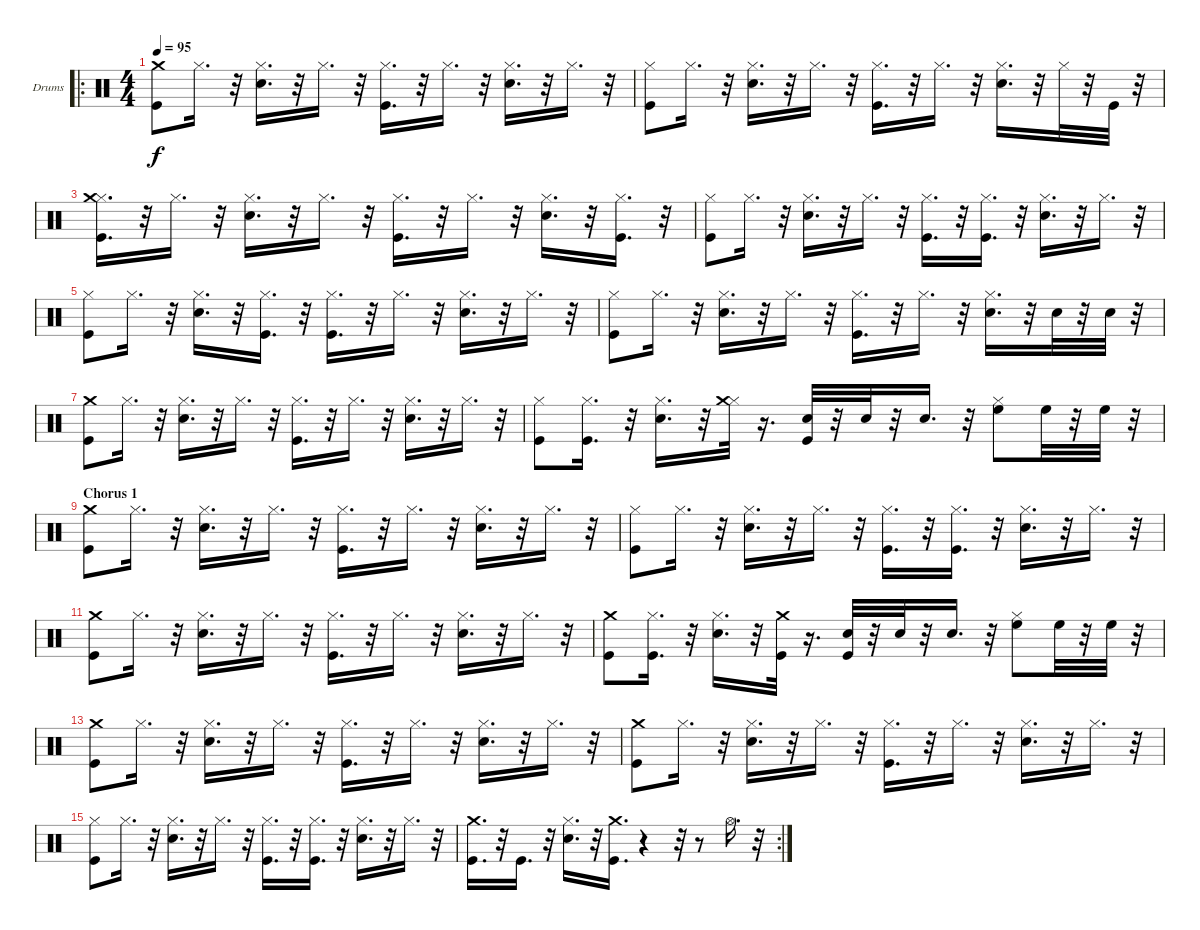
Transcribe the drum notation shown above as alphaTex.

\bracketExtendMode nobrackets
\firstSystemTrackNameOrientation horizontal
\otherSystemsTrackNameOrientation horizontal
\defaultBarNumberDisplay FirstOfSystem
\track ("Drumkit" "Drums") {instrument percussion}
\staff {score}
\articulation defaults
\ro
\ts (4 4)
\tempo 95
\clef neutral
\scale
0.498141
\ks c
("Crash medium (hit)" "Kick (hit)").8{dy f} "Hi-Hat (closed)".16{d} r.32 ("Hi-Hat (closed)" "Snare (hit) 2").16{d} r.32 "Hi-Hat (closed)".16{d} r.32 ("Hi-Hat (closed)" "Kick (hit)").16{d} r.32 "Hi-Hat (closed)".16{d} r.32 ("Hi-Hat (closed)" "Snare (hit) 2").16{d} r.32 "Hi-Hat (closed)".16{d} r.32 |
\scale
0.501859 ("Hi-Hat (closed)" "Kick (hit)").8 "Hi-Hat (closed)".16{d} r.32 ("Hi-Hat (closed)" "Snare (hit) 2").16{d} r.32 "Hi-Hat (closed)".16{d} r.32 ("Hi-Hat (closed)" "Kick (hit)").16{d} r.32 "Hi-Hat (closed)".16{d} r.32 ("Hi-Hat (closed)" "Snare (hit) 2").16{d} r.32 "Hi-Hat (closed)".32 r.32 "Kick (hit)".32 r.32 |
\scale
0.507692 ("Hi-Hat (closed)" "Crash medium (hit)" "Kick (hit)").16{d} r.32 "Hi-Hat (closed)".16{d} r.32 ("Hi-Hat (closed)" "Snare (hit) 2").16{d} r.32 "Hi-Hat (closed)".16{d} r.32 ("Hi-Hat (closed)" "Kick (hit)").16{d} r.32 "Hi-Hat (closed)".16{d} r.32 ("Hi-Hat (closed)" "Snare (hit) 2").16{d} r.32 ("Hi-Hat (closed)" "Kick (hit)").16{d} r.32 |
\scale
0.492308 ("Hi-Hat (closed)" "Kick (hit)").8 "Hi-Hat (closed)".16{d} r.32 ("Hi-Hat (closed)" "Snare (hit) 2").16{d} r.32 "Hi-Hat (closed)".16{d} r.32 ("Hi-Hat (closed)" "Kick (hit)").16{d} r.32 ("Hi-Hat (closed)" "Kick (hit)").16{d} r.32 ("Hi-Hat (closed)" "Snare (hit) 2").16{d} r.32 "Hi-Hat (closed)".16{d} r.32 |
\scale
0.486692 ("Hi-Hat (closed)" "Kick (hit)").8 "Hi-Hat (closed)".16{d} r.32 ("Hi-Hat (closed)" "Snare (hit) 2").16{d} r.32 ("Hi-Hat (closed)" "Kick (hit)").16{d} r.32 ("Hi-Hat (closed)" "Kick (hit)").16{d} r.32 "Hi-Hat (closed)".16{d} r.32 ("Hi-Hat (closed)" "Snare (hit) 2").16{d} r.32 "Hi-Hat (closed)".16{d} r.32 |
\scale
0.513308 ("Hi-Hat (closed)" "Kick (hit)").8 "Hi-Hat (closed)".16{d} r.32 ("Hi-Hat (closed)" "Snare (hit) 2").16{d} r.32 "Hi-Hat (closed)".16{d} r.32 ("Hi-Hat (closed)" "Kick (hit)").16{d} r.32 "Hi-Hat (closed)".16{d} r.32 ("Hi-Hat (closed)" "Snare (hit) 2").16{d} r.32 "Snare (hit) 2".32 r.32 "Snare (hit) 2".32 r.32 |
\scale
0.387879 ("Crash medium (hit)" "Kick (hit)").8 "Hi-Hat (closed)".16{d} r.32 ("Hi-Hat (closed)" "Snare (hit) 2").16{d} r.32 "Hi-Hat (closed)".16{d} r.32 ("Hi-Hat (closed)" "Kick (hit)").16{d} r.32 "Hi-Hat (closed)".16{d} r.32 ("Hi-Hat (closed)" "Snare (hit) 2").16{d} r.32 "Hi-Hat (closed)".16{d} r.32 |
\scale
0.612121 ("Hi-Hat (closed)" "Kick (hit)").8 ("Hi-Hat (closed)" "Kick (hit)").16{d} r.32 ("Hi-Hat (closed)" "Snare (hit) 2").16{d} r.32 ("Hi-Hat (closed)" "Crash medium (hit)").32 r.16{d} ("Snare (hit) 2" "Kick (hit)").32 r.32 "Snare (hit) 2".32 r.32 "Snare (hit) 2".16{d} r.32 ("Hi-Hat (closed)" "High Floor Tom (hit)").8 "High Floor Tom (hit)".32 r.32 "High Floor Tom (hit)".32 r.32 |
\section ("" "Chorus 1")
\scale
0.5 ("Kick (hit)" "Crash medium (hit)").8 "Hi-Hat (closed)".16{d} r.32 ("Hi-Hat (closed)" "Snare (hit) 2").16{d} r.32 "Hi-Hat (closed)".16{d} r.32 ("Hi-Hat (closed)" "Kick (hit)").16{d} r.32 "Hi-Hat (closed)".16{d} r.32 ("Hi-Hat (closed)" "Snare (hit) 2").16{d} r.32 "Hi-Hat (closed)".16{d} r.32 |
\scale
0.5 ("Hi-Hat (closed)" "Kick (hit)").8 "Hi-Hat (closed)".16{d} r.32 ("Hi-Hat (closed)" "Snare (hit) 2").16{d} r.32 "Hi-Hat (closed)".16{d} r.32 ("Hi-Hat (closed)" "Kick (hit)").16{d} r.32 ("Hi-Hat (closed)" "Kick (hit)").16{d} r.32 ("Hi-Hat (closed)" "Snare (hit) 2").16{d} r.32 "Hi-Hat (closed)".16{d} r.32 |
\scale
0.481203 ("Kick (hit)" "Crash medium (hit)").8 "Hi-Hat (closed)".16{d} r.32 ("Hi-Hat (closed)" "Snare (hit) 2").16{d} r.32 "Hi-Hat (closed)".16{d} r.32 ("Hi-Hat (closed)" "Kick (hit)").16{d} r.32 "Hi-Hat (closed)".16{d} r.32 ("Hi-Hat (closed)" "Snare (hit) 2").16{d} r.32 "Hi-Hat (closed)".16{d} r.32 |
\scale
0.518797 ("Kick (hit)" "Crash medium (hit)").8 ("Hi-Hat (closed)" "Kick (hit)").16{d} r.32 ("Hi-Hat (closed)" "Snare (hit) 2").16{d} r.32 ("Kick (hit)" "Crash medium (hit)").32 r.16{d} ("Snare (hit) 2" "Kick (hit)").32 r.32 "Snare (hit) 2".32 r.32 "Snare (hit) 2".16{d} r.32 ("Hi-Hat (closed)" "High Floor Tom (hit)").8 "High Floor Tom (hit)".32 r.32 "High Floor Tom (hit)".32 r.32 |
\scale
0.5 ("Crash medium (hit)" "Kick (hit)").8 "Hi-Hat (closed)".16{d} r.32 ("Hi-Hat (closed)" "Snare (hit) 2").16{d} r.32 "Hi-Hat (closed)".16{d} r.32 ("Hi-Hat (closed)" "Kick (hit)").16{d} r.32 "Hi-Hat (closed)".16{d} r.32 ("Hi-Hat (closed)" "Snare (hit) 2").16{d} r.32 "Hi-Hat (closed)".16{d} r.32 |
\scale
0.5 ("Crash medium (hit)" "Kick (hit)").8 "Hi-Hat (closed)".16{d} r.32 ("Hi-Hat (closed)" "Snare (hit) 2").16{d} r.32 "Hi-Hat (closed)".16{d} r.32 ("Hi-Hat (closed)" "Kick (hit)").16{d} r.32 "Hi-Hat (closed)".16{d} r.32 ("Hi-Hat (closed)" "Snare (hit) 2").16{d} r.32 "Hi-Hat (closed)".16{d} r.32 |
\scale
0.523517 ("Hi-Hat (closed)" "Kick (hit)").8 "Hi-Hat (closed)".16{d} r.32 ("Hi-Hat (closed)" "Snare (hit) 2").16{d} r.32 "Hi-Hat (closed)".16{d} r.32 ("Hi-Hat (closed)" "Kick (hit)").16{d} r.32 ("Hi-Hat (closed)" "Kick (hit)").16{d} r.32 ("Hi-Hat (closed)" "Snare (hit) 2").16{d} r.32 "Hi-Hat (closed)".16{d} r.32 |
\rc 2
\scale
0.476483 ("Kick (hit)" "Crash medium (hit)").16{d} r.32 "Kick (hit)".16{d} r.32 ("Hi-Hat (closed)" "Snare (hit) 2").16{d} r.32 ("Kick (hit)" "Crash medium (hit)").16{d} r.4 r.32 r.8 "Hi-Hat (open)".16{d} r.32
